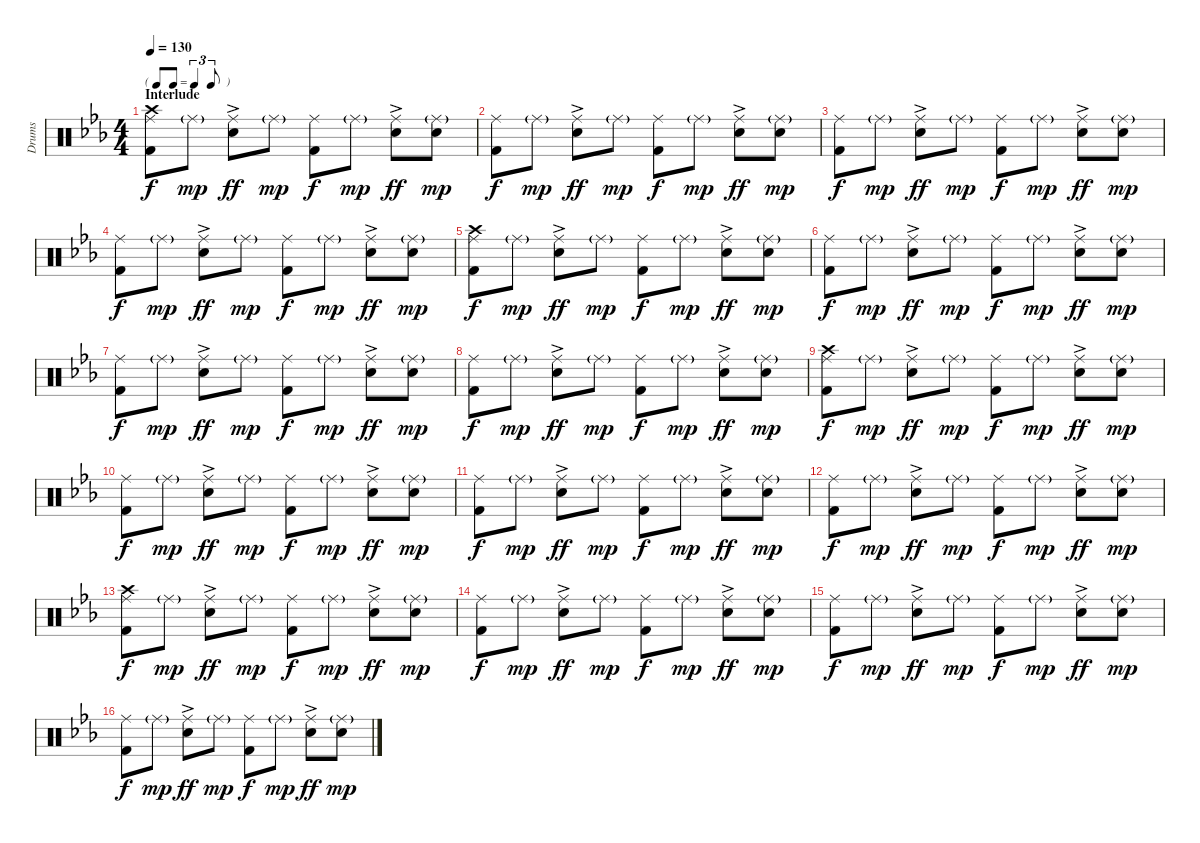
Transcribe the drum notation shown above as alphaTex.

\track ("Drums" "Drums") {instrument percussion}
\staff {score}
\articulation defaults
\ts (4 4)
\tf triplet8th
\section ("" "Interlude")
\tempo 130
\clef neutral
\ks eb
("Ride (middle)" "Kick (hit) 2" "Crash high (hit)").8{dy f} "Ride (middle)"{g}.8{dy mp} ("Ride (middle)" "Electric Snare (hit)"{ac}).8{dy ff} "Ride (middle)"{g}.8{dy mp} ("Ride (middle)" "Kick (hit) 2").8{dy f} "Ride (middle)"{g}.8{dy mp} ("Ride (middle)" "Electric Snare (hit)"{ac}).8{dy ff} ("Ride (middle)"{g} "Electric Snare (hit)").8{dy mp} |
("Ride (middle)" "Kick (hit) 2").8{dy f} "Ride (middle)"{g}.8{dy mp} ("Ride (middle)" "Electric Snare (hit)"{ac}).8{dy ff} "Ride (middle)"{g}.8{dy mp} ("Ride (middle)" "Kick (hit) 2").8{dy f} "Ride (middle)"{g}.8{dy mp} ("Ride (middle)" "Electric Snare (hit)"{ac}).8{dy ff} ("Ride (middle)"{g} "Electric Snare (hit)").8{dy mp} |
("Ride (middle)" "Kick (hit) 2").8{dy f} "Ride (middle)"{g}.8{dy mp} ("Ride (middle)" "Electric Snare (hit)"{ac}).8{dy ff} "Ride (middle)"{g}.8{dy mp} ("Ride (middle)" "Kick (hit) 2").8{dy f} "Ride (middle)"{g}.8{dy mp} ("Ride (middle)" "Electric Snare (hit)"{ac}).8{dy ff} ("Ride (middle)"{g} "Electric Snare (hit)").8{dy mp} |
("Ride (middle)" "Kick (hit) 2").8{dy f} "Ride (middle)"{g}.8{dy mp} ("Ride (middle)" "Electric Snare (hit)"{ac}).8{dy ff} "Ride (middle)"{g}.8{dy mp} ("Ride (middle)" "Kick (hit) 2").8{dy f} "Ride (middle)"{g}.8{dy mp} ("Ride (middle)" "Electric Snare (hit)"{ac}).8{dy ff} ("Ride (middle)"{g} "Electric Snare (hit)").8{dy mp} |
("Ride (middle)" "Kick (hit) 2" "Crash high (hit)").8{dy f} "Ride (middle)"{g}.8{dy mp} ("Ride (middle)" "Electric Snare (hit)"{ac}).8{dy ff} "Ride (middle)"{g}.8{dy mp} ("Ride (middle)" "Kick (hit) 2").8{dy f} "Ride (middle)"{g}.8{dy mp} ("Ride (middle)" "Electric Snare (hit)"{ac}).8{dy ff} ("Ride (middle)"{g} "Electric Snare (hit)").8{dy mp} |
("Ride (middle)" "Kick (hit) 2").8{dy f} "Ride (middle)"{g}.8{dy mp} ("Ride (middle)" "Electric Snare (hit)"{ac}).8{dy ff} "Ride (middle)"{g}.8{dy mp} ("Ride (middle)" "Kick (hit) 2").8{dy f} "Ride (middle)"{g}.8{dy mp} ("Ride (middle)" "Electric Snare (hit)"{ac}).8{dy ff} ("Ride (middle)"{g} "Electric Snare (hit)").8{dy mp} |
("Ride (middle)" "Kick (hit) 2").8{dy f} "Ride (middle)"{g}.8{dy mp} ("Ride (middle)" "Electric Snare (hit)"{ac}).8{dy ff} "Ride (middle)"{g}.8{dy mp} ("Ride (middle)" "Kick (hit) 2").8{dy f} "Ride (middle)"{g}.8{dy mp} ("Ride (middle)" "Electric Snare (hit)"{ac}).8{dy ff} ("Ride (middle)"{g} "Electric Snare (hit)").8{dy mp} |
("Ride (middle)" "Kick (hit) 2").8{dy f} "Ride (middle)"{g}.8{dy mp} ("Ride (middle)" "Electric Snare (hit)"{ac}).8{dy ff} "Ride (middle)"{g}.8{dy mp} ("Ride (middle)" "Kick (hit) 2").8{dy f} "Ride (middle)"{g}.8{dy mp} ("Ride (middle)" "Electric Snare (hit)"{ac}).8{dy ff} ("Ride (middle)"{g} "Electric Snare (hit)").8{dy mp} |
("Ride (middle)" "Kick (hit) 2" "Crash high (hit)").8{dy f} "Ride (middle)"{g}.8{dy mp} ("Ride (middle)" "Electric Snare (hit)"{ac}).8{dy ff} "Ride (middle)"{g}.8{dy mp} ("Ride (middle)" "Kick (hit) 2").8{dy f} "Ride (middle)"{g}.8{dy mp} ("Ride (middle)" "Electric Snare (hit)"{ac}).8{dy ff} ("Ride (middle)"{g} "Electric Snare (hit)").8{dy mp} |
("Ride (middle)" "Kick (hit) 2").8{dy f} "Ride (middle)"{g}.8{dy mp} ("Ride (middle)" "Electric Snare (hit)"{ac}).8{dy ff} "Ride (middle)"{g}.8{dy mp} ("Ride (middle)" "Kick (hit) 2").8{dy f} "Ride (middle)"{g}.8{dy mp} ("Ride (middle)" "Electric Snare (hit)"{ac}).8{dy ff} ("Ride (middle)"{g} "Electric Snare (hit)").8{dy mp} |
("Ride (middle)" "Kick (hit) 2").8{dy f} "Ride (middle)"{g}.8{dy mp} ("Ride (middle)" "Electric Snare (hit)"{ac}).8{dy ff} "Ride (middle)"{g}.8{dy mp} ("Ride (middle)" "Kick (hit) 2").8{dy f} "Ride (middle)"{g}.8{dy mp} ("Ride (middle)" "Electric Snare (hit)"{ac}).8{dy ff} ("Ride (middle)"{g} "Electric Snare (hit)").8{dy mp} |
("Ride (middle)" "Kick (hit) 2").8{dy f} "Ride (middle)"{g}.8{dy mp} ("Ride (middle)" "Electric Snare (hit)"{ac}).8{dy ff} "Ride (middle)"{g}.8{dy mp} ("Ride (middle)" "Kick (hit) 2").8{dy f} "Ride (middle)"{g}.8{dy mp} ("Ride (middle)" "Electric Snare (hit)"{ac}).8{dy ff} ("Ride (middle)"{g} "Electric Snare (hit)").8{dy mp} |
("Ride (middle)" "Kick (hit) 2" "Crash high (hit)").8{dy f} "Ride (middle)"{g}.8{dy mp} ("Ride (middle)" "Electric Snare (hit)"{ac}).8{dy ff} "Ride (middle)"{g}.8{dy mp} ("Ride (middle)" "Kick (hit) 2").8{dy f} "Ride (middle)"{g}.8{dy mp} ("Ride (middle)" "Electric Snare (hit)"{ac}).8{dy ff} ("Ride (middle)"{g} "Electric Snare (hit)").8{dy mp} |
("Ride (middle)" "Kick (hit) 2").8{dy f} "Ride (middle)"{g}.8{dy mp} ("Ride (middle)" "Electric Snare (hit)"{ac}).8{dy ff} "Ride (middle)"{g}.8{dy mp} ("Ride (middle)" "Kick (hit) 2").8{dy f} "Ride (middle)"{g}.8{dy mp} ("Ride (middle)" "Electric Snare (hit)"{ac}).8{dy ff} ("Ride (middle)"{g} "Electric Snare (hit)").8{dy mp} |
("Ride (middle)" "Kick (hit) 2").8{dy f} "Ride (middle)"{g}.8{dy mp} ("Ride (middle)" "Electric Snare (hit)"{ac}).8{dy ff} "Ride (middle)"{g}.8{dy mp} ("Ride (middle)" "Kick (hit) 2").8{dy f} "Ride (middle)"{g}.8{dy mp} ("Ride (middle)" "Electric Snare (hit)"{ac}).8{dy ff} ("Ride (middle)"{g} "Electric Snare (hit)").8{dy mp} |
("Ride (middle)" "Kick (hit) 2").8{dy f} "Ride (middle)"{g}.8{dy mp} ("Ride (middle)" "Electric Snare (hit)"{ac}).8{dy ff} "Ride (middle)"{g}.8{dy mp} ("Ride (middle)" "Kick (hit) 2").8{dy f} "Ride (middle)"{g}.8{dy mp} ("Ride (middle)" "Electric Snare (hit)"{ac}).8{dy ff} ("Ride (middle)"{g} "Electric Snare (hit)").8{dy mp}
